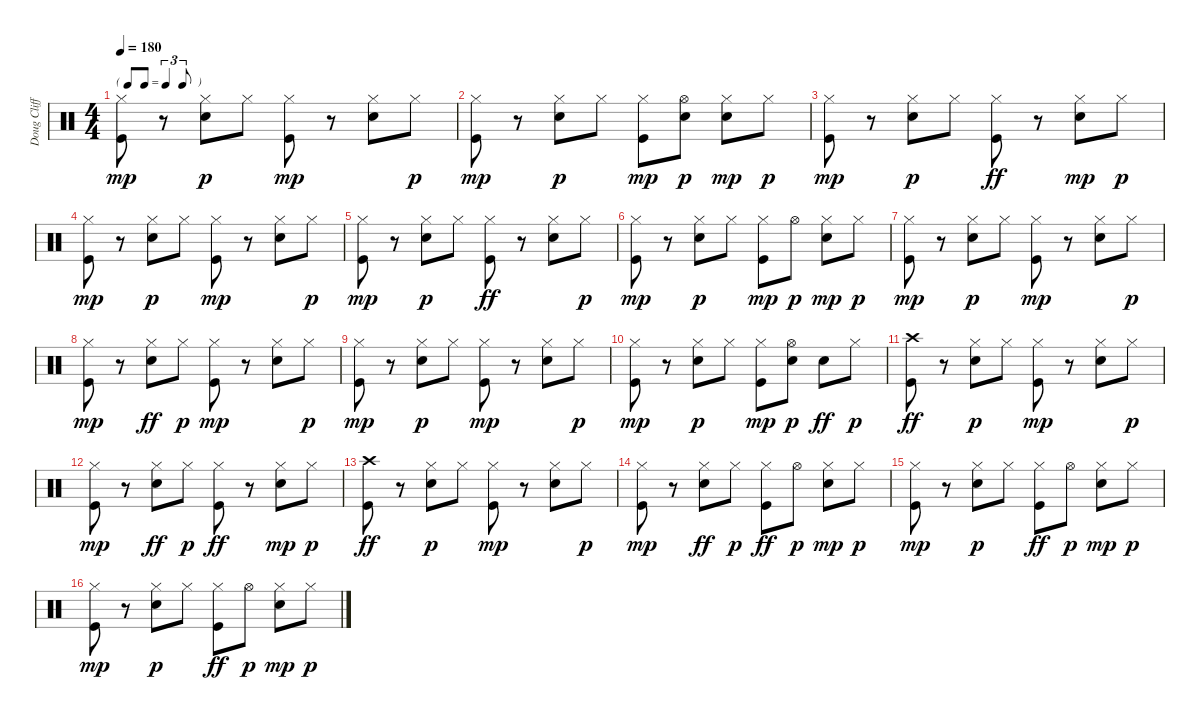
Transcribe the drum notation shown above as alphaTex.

\track ("Doug Clifford" "Doug Cliff") {instrument percussion}
\staff {score}
\articulation defaults
\ts (4 4)
\tf triplet8th
\tempo 180
\clef neutral
\ks c
("Kick (hit)" "Hi-Hat (closed)").8{dy mp} r.8 ("Snare (hit) 2" "Hi-Hat (closed)").8{dy p} "Hi-Hat (closed)".8 ("Kick (hit)" "Hi-Hat (closed)").8{dy mp} r.8 ("Snare (hit) 2" "Hi-Hat (closed)").8 "Hi-Hat (closed)".8{dy p} |
("Kick (hit)" "Hi-Hat (closed)").8{dy mp} r.8 ("Snare (hit) 2" "Hi-Hat (closed)").8{dy p} "Hi-Hat (closed)".8 ("Kick (hit)" "Hi-Hat (closed)").8{dy mp} ("Hi-Hat (open)" "Snare (hit) 2").8{dy p} ("Snare (hit) 2" "Hi-Hat (closed)").8{dy mp} "Hi-Hat (closed)".8{dy p} |
("Kick (hit)" "Hi-Hat (closed)").8{dy mp} r.8 ("Snare (hit) 2" "Hi-Hat (closed)").8{dy p} "Hi-Hat (closed)".8 ("Hi-Hat (closed)" "Kick (hit)").8{dy ff} r.8 ("Snare (hit) 2" "Hi-Hat (closed)").8{dy mp} "Hi-Hat (closed)".8{dy p} |
("Kick (hit)" "Hi-Hat (closed)").8{dy mp} r.8 ("Snare (hit) 2" "Hi-Hat (closed)").8{dy p} "Hi-Hat (closed)".8 ("Kick (hit)" "Hi-Hat (closed)").8{dy mp} r.8 ("Snare (hit) 2" "Hi-Hat (closed)").8 "Hi-Hat (closed)".8{dy p} |
("Kick (hit)" "Hi-Hat (closed)").8{dy mp} r.8 ("Snare (hit) 2" "Hi-Hat (closed)").8{dy p} "Hi-Hat (closed)".8 ("Hi-Hat (closed)" "Kick (hit)").8{dy ff} r.8 ("Hi-Hat (closed)" "Snare (hit) 2").8 "Hi-Hat (closed)".8{dy p} |
("Kick (hit)" "Hi-Hat (closed)").8{dy mp} r.8 ("Snare (hit) 2" "Hi-Hat (closed)").8{dy p} "Hi-Hat (closed)".8 ("Kick (hit)" "Hi-Hat (closed)").8{dy mp} "Hi-Hat (open)".8{dy p} ("Snare (hit) 2" "Hi-Hat (closed)").8{dy mp} "Hi-Hat (closed)".8{dy p} |
("Kick (hit)" "Hi-Hat (closed)").8{dy mp} r.8 ("Snare (hit) 2" "Hi-Hat (closed)").8{dy p} "Hi-Hat (closed)".8 ("Kick (hit)" "Hi-Hat (closed)").8{dy mp} r.8 ("Snare (hit) 2" "Hi-Hat (closed)").8 "Hi-Hat (closed)".8{dy p} |
("Kick (hit)" "Hi-Hat (closed)").8{dy mp} r.8 ("Hi-Hat (closed)" "Snare (hit) 2").8{dy ff} "Hi-Hat (closed)".8{dy p} ("Kick (hit)" "Hi-Hat (closed)").8{dy mp} r.8 ("Snare (hit) 2" "Hi-Hat (closed)").8 "Hi-Hat (closed)".8{dy p} |
("Kick (hit)" "Hi-Hat (closed)").8{dy mp} r.8 ("Snare (hit) 2" "Hi-Hat (closed)").8{dy p} "Hi-Hat (closed)".8 ("Kick (hit)" "Hi-Hat (closed)").8{dy mp} r.8 ("Snare (hit) 2" "Hi-Hat (closed)").8 "Hi-Hat (closed)".8{dy p} |
("Kick (hit)" "Hi-Hat (closed)").8{dy mp} r.8 ("Snare (hit) 2" "Hi-Hat (closed)").8{dy p} "Hi-Hat (closed)".8 ("Kick (hit)" "Hi-Hat (closed)").8{dy mp} ("Hi-Hat (open)" "Snare (hit) 2").8{dy p} "Snare (hit) 2".8{dy ff} "Hi-Hat (closed)".8{dy p} |
("Crash high (hit)" "Kick (hit)").8{dy ff} r.8 ("Snare (hit) 2" "Hi-Hat (closed)").8{dy p} "Hi-Hat (closed)".8 ("Kick (hit)" "Hi-Hat (closed)").8{dy mp} r.8 ("Snare (hit) 2" "Hi-Hat (closed)").8 "Hi-Hat (closed)".8{dy p} |
("Kick (hit)" "Hi-Hat (closed)").8{dy mp} r.8 ("Hi-Hat (closed)" "Snare (hit) 2").8{dy ff} "Hi-Hat (closed)".8{dy p} ("Hi-Hat (closed)" "Kick (hit)").8{dy ff} r.8 ("Snare (hit) 2" "Hi-Hat (closed)").8{dy mp} "Hi-Hat (closed)".8{dy p} |
("Crash high (hit)" "Kick (hit)").8{dy ff} r.8 ("Snare (hit) 2" "Hi-Hat (closed)").8{dy p} "Hi-Hat (closed)".8 ("Kick (hit)" "Hi-Hat (closed)").8{dy mp} r.8 ("Snare (hit) 2" "Hi-Hat (closed)").8 "Hi-Hat (closed)".8{dy p} |
("Kick (hit)" "Hi-Hat (closed)").8{dy mp} r.8 ("Hi-Hat (closed)" "Snare (hit) 2").8{dy ff} "Hi-Hat (closed)".8{dy p} ("Hi-Hat (closed)" "Kick (hit)").8{dy ff} "Hi-Hat (open)".8{dy p} ("Snare (hit) 2" "Hi-Hat (closed)").8{dy mp} "Hi-Hat (closed)".8{dy p} |
("Kick (hit)" "Hi-Hat (closed)").8{dy mp} r.8 ("Snare (hit) 2" "Hi-Hat (closed)").8{dy p} "Hi-Hat (closed)".8 ("Hi-Hat (closed)" "Kick (hit)").8{dy ff} "Hi-Hat (open)".8{dy p} ("Snare (hit) 2" "Hi-Hat (closed)").8{dy mp} "Hi-Hat (closed)".8{dy p} |
("Kick (hit)" "Hi-Hat (closed)").8{dy mp} r.8 ("Snare (hit) 2" "Hi-Hat (closed)").8{dy p} "Hi-Hat (closed)".8 ("Hi-Hat (closed)" "Kick (hit)").8{dy ff} "Hi-Hat (open)".8{dy p} ("Snare (hit) 2" "Hi-Hat (closed)").8{dy mp} "Hi-Hat (closed)".8{dy p}
